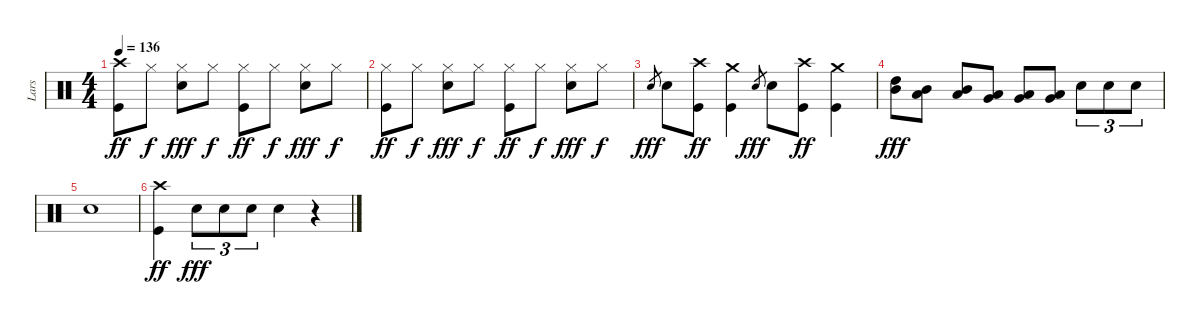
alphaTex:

\track ("Lars" "Lars") {instrument percussion}
\staff {score}
\articulation defaults
\ts (4 4)
\tempo 136
\clef neutral
\ks c
("Crash high (hit)" "Kick (hit)").8{dy ff} "Hi-Hat (closed)".8{dy f} ("Hi-Hat (closed)" "Electric Snare (hit)").8{dy fff} "Hi-Hat (closed)".8{dy f} ("Hi-Hat (closed)" "Kick (hit)").8{dy ff} "Hi-Hat (closed)".8{dy f} ("Hi-Hat (closed)" "Electric Snare (hit)").8{dy fff} "Hi-Hat (closed)".8{dy f} |
("Hi-Hat (closed)" "Kick (hit)").8{dy ff} "Hi-Hat (closed)".8{dy f} ("Hi-Hat (closed)" "Electric Snare (hit)").8{dy fff} "Hi-Hat (closed)".8{dy f} ("Hi-Hat (closed)" "Kick (hit)").8{dy ff} "Hi-Hat (closed)".8{dy f} ("Hi-Hat (closed)" "Electric Snare (hit)").8{dy fff} "Hi-Hat (closed)".8{dy f} |
"Electric Snare (hit)".8{gr dy fff} "Electric Snare (hit)".8 ("Crash high (hit)" "Kick (hit)").8{dy ff} ("Crash medium (hit)" "Kick (hit)").4 "Electric Snare (hit)".8{gr dy fff} "Electric Snare (hit)".8 ("Crash high (hit)" "Kick (hit)").8{dy ff} ("Crash medium (hit)" "Kick (hit)").4 |
("High Tom (hit)" "Mid Tom (hit)").8{dy fff} ("Mid Tom (hit)" "Low Tom (hit)").8 ("Mid Tom (hit)" "Low Tom (hit)").8 ("Low Tom (hit)" "Very Low Tom (hit)").8 ("Low Tom (hit)" "Very Low Tom (hit)").8 ("Very Low Tom (hit)" "Low Floor Tom (hit)").8 "Electric Snare (hit)".8{tu (3 2)} "Electric Snare (hit)".8{tu (3 2)} "Electric Snare (hit)".8{tu (3 2)} |
"Electric Snare (hit)".1 |
("Crash high (hit)" "Kick (hit)").4{dy ff} "Electric Snare (hit)".8{tu (3 2) dy fff} "Electric Snare (hit)".8{tu (3 2)} "Electric Snare (hit)".8{tu (3 2)} "Electric Snare (hit)".4 r.4
